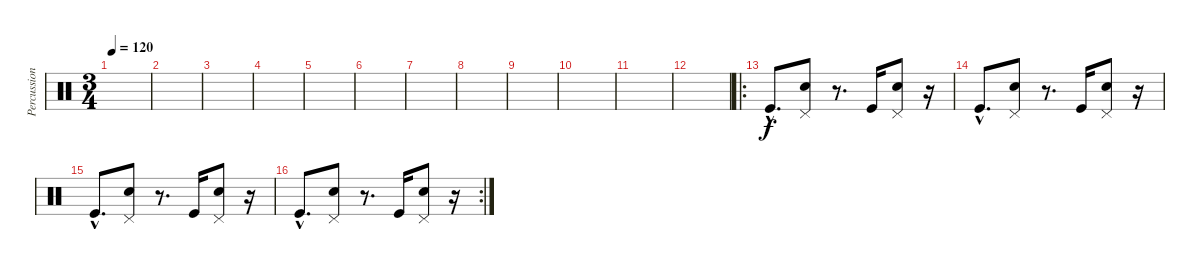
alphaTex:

\track ("Percussions" "Percussion") {instrument percussion}
\staff {score}
\articulation defaults
\ts (3 4)
\tempo 120
\clef neutral
\ks c
|
|
|
|
|
|
|
|
|
|
|
|
\ro "Kick (hit)"{hac}.8{d}
("Pedal Hi-Hat (hit)" "Electric Snare (hit)").8 r.8{d} "Kick (hit)".16 ("Pedal Hi-Hat (hit)" "Electric Snare (hit)").8 r.16 |
"Kick (hit)"{hac}.8{d} ("Pedal Hi-Hat (hit)" "Electric Snare (hit)").8 r.8{d} "Kick (hit)".16 ("Pedal Hi-Hat (hit)" "Electric Snare (hit)").8 r.16 |
"Kick (hit)"{hac}.8{d} ("Pedal Hi-Hat (hit)" "Electric Snare (hit)").8 r.8{d} "Kick (hit)".16 ("Pedal Hi-Hat (hit)" "Electric Snare (hit)").8 r.16 |
\rc 2 "Kick (hit)"{hac}.8{d}
("Pedal Hi-Hat (hit)" "Electric Snare (hit)").8 r.8{d} "Kick (hit)".16 ("Pedal Hi-Hat (hit)" "Electric Snare (hit)").8 r.16
